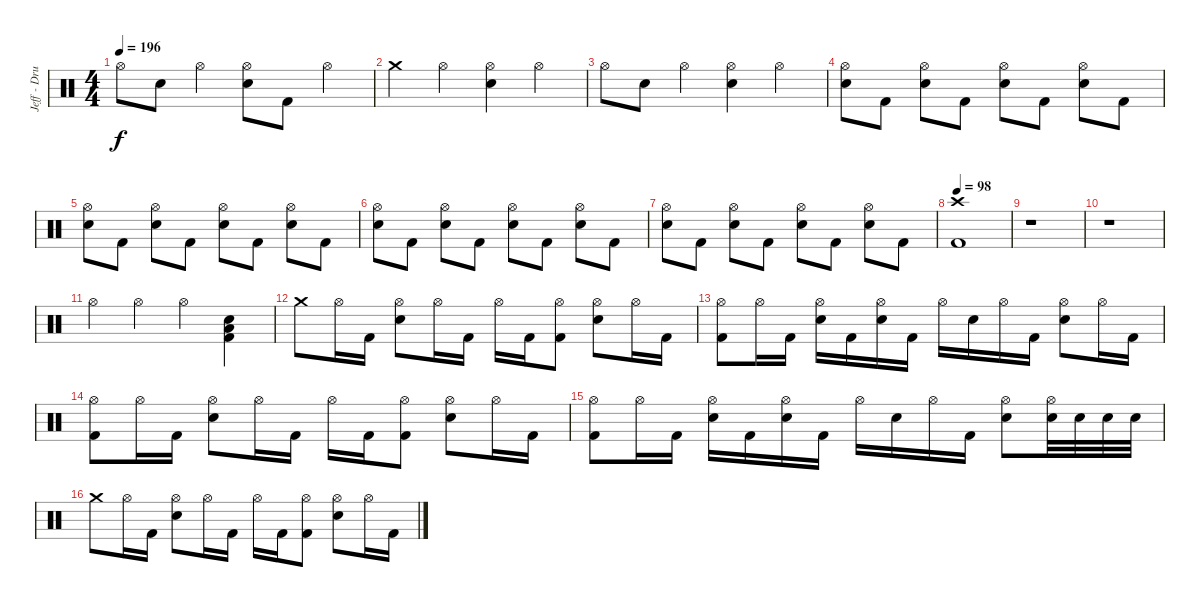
\track ("Jeff - Drums" "Jeff - Dru") {instrument percussion}
\staff {score}
\articulation defaults
\ts (4 4)
\tempo 196
\clef neutral
\ks c "Hi-Hat (open)".8{dy f} "Electric Snare (hit)".8 "Hi-Hat (open)".4
("Hi-Hat (open)" "Electric Snare (hit)").8 "Kick (hit) 2".8 "Hi-Hat (open)".4 |
"Crash medium (hit)".4 "Hi-Hat (open)".4 ("Hi-Hat (open)" "Electric Snare (hit)").4 "Hi-Hat (open)".4 |
"Hi-Hat (open)".8 "Electric Snare (hit)".8 "Hi-Hat (open)".4 ("Hi-Hat (open)" "Electric Snare (hit)").4 "Hi-Hat (open)".4 |
("Hi-Hat (open)" "Electric Snare (hit)").8 "Kick (hit) 2".8 ("Hi-Hat (open)" "Electric Snare (hit)").8 "Kick (hit) 2".8 ("Hi-Hat (open)" "Electric Snare (hit)").8 "Kick (hit) 2".8 ("Hi-Hat (open)" "Electric Snare (hit)").8 "Kick (hit) 2".8 |
("Hi-Hat (open)" "Electric Snare (hit)").8 "Kick (hit) 2".8 ("Hi-Hat (open)" "Electric Snare (hit)").8 "Kick (hit) 2".8 ("Hi-Hat (open)" "Electric Snare (hit)").8 "Kick (hit) 2".8 ("Hi-Hat (open)" "Electric Snare (hit)").8 "Kick (hit) 2".8 |
("Hi-Hat (open)" "Electric Snare (hit)").8 "Kick (hit) 2".8 ("Hi-Hat (open)" "Electric Snare (hit)").8 "Kick (hit) 2".8 ("Hi-Hat (open)" "Electric Snare (hit)").8 "Kick (hit) 2".8 ("Hi-Hat (open)" "Electric Snare (hit)").8 "Kick (hit) 2".8 |
("Hi-Hat (open)" "Electric Snare (hit)").8 "Kick (hit) 2".8 ("Hi-Hat (open)" "Electric Snare (hit)").8 "Kick (hit) 2".8 ("Hi-Hat (open)" "Electric Snare (hit)").8 "Kick (hit) 2".8 ("Hi-Hat (open)" "Electric Snare (hit)").8 "Kick (hit) 2".8 |
\tempo 98
("Crash high (hit)" "Kick (hit) 2").1 |
r.1 |
r.1 |
"Hi-Hat (open)".4 "Hi-Hat (open)".4 "Hi-Hat (open)".4 ("Electric Snare (hit)" "Low Tom (hit)" "Kick (hit) 2").4 |
"Crash medium (hit)".8 "Hi-Hat (open)".16 "Kick (hit) 2".16 ("Hi-Hat (open)" "Electric Snare (hit)").8 "Hi-Hat (open)".16 "Kick (hit) 2".16 "Hi-Hat (open)".16 "Kick (hit) 2".16 ("Hi-Hat (open)" "Kick (hit) 2").8 ("Hi-Hat (open)" "Electric Snare (hit)").8 "Hi-Hat (open)".16 "Kick (hit) 2".16 |
("Hi-Hat (open)" "Kick (hit) 2").8 "Hi-Hat (open)".16 "Kick (hit) 2".16 ("Hi-Hat (open)" "Electric Snare (hit)").16 "Kick (hit) 2".16 ("Hi-Hat (open)" "Electric Snare (hit)").16 "Kick (hit) 2".16 "Hi-Hat (open)".16 "Electric Snare (hit)".16 "Hi-Hat (open)".16 "Kick (hit) 2".16 ("Hi-Hat (open)" "Electric Snare (hit)").8 "Hi-Hat (open)".16 "Kick (hit) 2".16 |
("Hi-Hat (open)" "Kick (hit) 2").8 "Hi-Hat (open)".16 "Kick (hit) 2".16 ("Hi-Hat (open)" "Electric Snare (hit)").8 "Hi-Hat (open)".16 "Kick (hit) 2".16 "Hi-Hat (open)".16 "Kick (hit) 2".16 ("Hi-Hat (open)" "Kick (hit) 2").8 ("Hi-Hat (open)" "Electric Snare (hit)").8 "Hi-Hat (open)".16 "Kick (hit) 2".16 |
("Hi-Hat (open)" "Kick (hit) 2").8 "Hi-Hat (open)".16 "Kick (hit) 2".16 ("Hi-Hat (open)" "Electric Snare (hit)").16 "Kick (hit) 2".16 ("Hi-Hat (open)" "Electric Snare (hit)").16 "Kick (hit) 2".16 "Hi-Hat (open)".16 "Electric Snare (hit)".16 "Hi-Hat (open)".16 "Kick (hit) 2".16 ("Hi-Hat (open)" "Electric Snare (hit)").8 ("Hi-Hat (open)" "Electric Snare (hit)").32 "Electric Snare (hit)".32 "Electric Snare (hit)".32 "Electric Snare (hit)".32 |
"Crash medium (hit)".8 "Hi-Hat (open)".16 "Kick (hit) 2".16 ("Hi-Hat (open)" "Electric Snare (hit)").8 "Hi-Hat (open)".16 "Kick (hit) 2".16 "Hi-Hat (open)".16 "Kick (hit) 2".16 ("Hi-Hat (open)" "Kick (hit) 2").8 ("Hi-Hat (open)" "Electric Snare (hit)").8 "Hi-Hat (open)".16 "Kick (hit) 2".16
